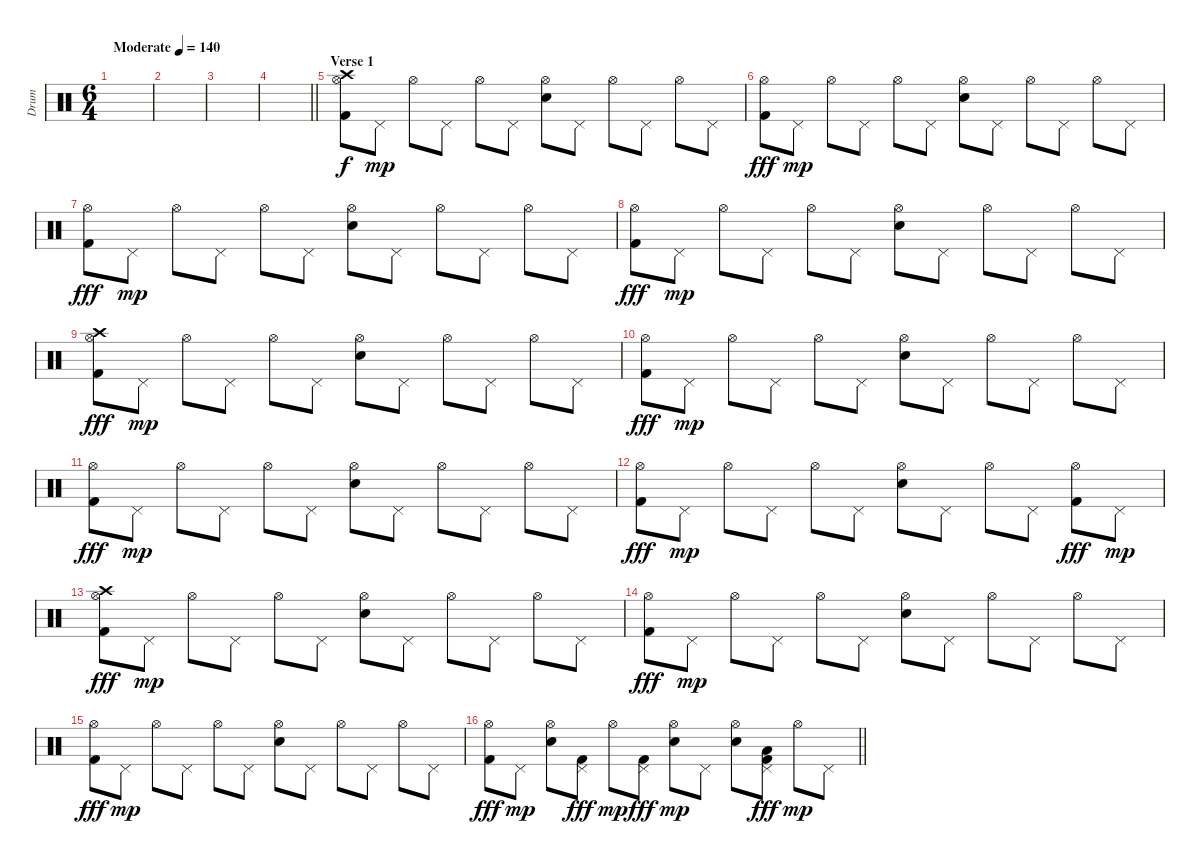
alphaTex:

\track ("Drum" "Drum") {instrument percussion}
\staff {score}
\articulation defaults
\ts (6 4)
\tempo (140 "Moderate")
\clef neutral
\ks c
|
|
|
\barLineRight lightlight
|
\section ("" "Verse 1")
("Hi-Hat (open)" "Kick (hit) 2" "Crash high (hit)").8 "Pedal Hi-Hat (hit)".8{dy mp} "Hi-Hat (open)".8 "Pedal Hi-Hat (hit)".8 "Hi-Hat (open)".8 "Pedal Hi-Hat (hit)".8 ("Hi-Hat (open)" "Electric Snare (hit)").8 "Pedal Hi-Hat (hit)".8 "Hi-Hat (open)".8 "Pedal Hi-Hat (hit)".8 "Hi-Hat (open)".8 "Pedal Hi-Hat (hit)".8 |
("Hi-Hat (open)" "Kick (hit) 2").8{dy fff} "Pedal Hi-Hat (hit)".8{dy mp} "Hi-Hat (open)".8 "Pedal Hi-Hat (hit)".8 "Hi-Hat (open)".8 "Pedal Hi-Hat (hit)".8 ("Hi-Hat (open)" "Electric Snare (hit)").8 "Pedal Hi-Hat (hit)".8 "Hi-Hat (open)".8 "Pedal Hi-Hat (hit)".8 "Hi-Hat (open)".8 "Pedal Hi-Hat (hit)".8 |
("Hi-Hat (open)" "Kick (hit) 2").8{dy fff} "Pedal Hi-Hat (hit)".8{dy mp} "Hi-Hat (open)".8 "Pedal Hi-Hat (hit)".8 "Hi-Hat (open)".8 "Pedal Hi-Hat (hit)".8 ("Hi-Hat (open)" "Electric Snare (hit)").8 "Pedal Hi-Hat (hit)".8 "Hi-Hat (open)".8 "Pedal Hi-Hat (hit)".8 "Hi-Hat (open)".8 "Pedal Hi-Hat (hit)".8 |
("Hi-Hat (open)" "Kick (hit) 2").8{dy fff} "Pedal Hi-Hat (hit)".8{dy mp} "Hi-Hat (open)".8 "Pedal Hi-Hat (hit)".8 "Hi-Hat (open)".8 "Pedal Hi-Hat (hit)".8 ("Hi-Hat (open)" "Electric Snare (hit)").8 "Pedal Hi-Hat (hit)".8 "Hi-Hat (open)".8 "Pedal Hi-Hat (hit)".8 "Hi-Hat (open)".8 "Pedal Hi-Hat (hit)".8 |
("Hi-Hat (open)" "Kick (hit) 2" "Crash high (hit)").8{dy fff} "Pedal Hi-Hat (hit)".8{dy mp} "Hi-Hat (open)".8 "Pedal Hi-Hat (hit)".8 "Hi-Hat (open)".8 "Pedal Hi-Hat (hit)".8 ("Hi-Hat (open)" "Electric Snare (hit)").8 "Pedal Hi-Hat (hit)".8 "Hi-Hat (open)".8 "Pedal Hi-Hat (hit)".8 "Hi-Hat (open)".8 "Pedal Hi-Hat (hit)".8 |
("Hi-Hat (open)" "Kick (hit) 2").8{dy fff} "Pedal Hi-Hat (hit)".8{dy mp} "Hi-Hat (open)".8 "Pedal Hi-Hat (hit)".8 "Hi-Hat (open)".8 "Pedal Hi-Hat (hit)".8 ("Hi-Hat (open)" "Electric Snare (hit)").8 "Pedal Hi-Hat (hit)".8 "Hi-Hat (open)".8 "Pedal Hi-Hat (hit)".8 "Hi-Hat (open)".8 "Pedal Hi-Hat (hit)".8 |
("Hi-Hat (open)" "Kick (hit) 2").8{dy fff} "Pedal Hi-Hat (hit)".8{dy mp} "Hi-Hat (open)".8 "Pedal Hi-Hat (hit)".8 "Hi-Hat (open)".8 "Pedal Hi-Hat (hit)".8 ("Hi-Hat (open)" "Electric Snare (hit)").8 "Pedal Hi-Hat (hit)".8 "Hi-Hat (open)".8 "Pedal Hi-Hat (hit)".8 "Hi-Hat (open)".8 "Pedal Hi-Hat (hit)".8 |
("Hi-Hat (open)" "Kick (hit) 2").8{dy fff} "Pedal Hi-Hat (hit)".8{dy mp} "Hi-Hat (open)".8 "Pedal Hi-Hat (hit)".8 "Hi-Hat (open)".8 "Pedal Hi-Hat (hit)".8 ("Hi-Hat (open)" "Electric Snare (hit)").8 "Pedal Hi-Hat (hit)".8 "Hi-Hat (open)".8 "Pedal Hi-Hat (hit)".8 ("Hi-Hat (open)" "Kick (hit) 2").8{dy fff} "Pedal Hi-Hat (hit)".8{dy mp} |
("Hi-Hat (open)" "Kick (hit) 2" "Crash high (hit)").8{dy fff} "Pedal Hi-Hat (hit)".8{dy mp} "Hi-Hat (open)".8 "Pedal Hi-Hat (hit)".8 "Hi-Hat (open)".8 "Pedal Hi-Hat (hit)".8 ("Hi-Hat (open)" "Electric Snare (hit)").8 "Pedal Hi-Hat (hit)".8 "Hi-Hat (open)".8 "Pedal Hi-Hat (hit)".8 "Hi-Hat (open)".8 "Pedal Hi-Hat (hit)".8 |
("Hi-Hat (open)" "Kick (hit) 2").8{dy fff} "Pedal Hi-Hat (hit)".8{dy mp} "Hi-Hat (open)".8 "Pedal Hi-Hat (hit)".8 "Hi-Hat (open)".8 "Pedal Hi-Hat (hit)".8 ("Hi-Hat (open)" "Electric Snare (hit)").8 "Pedal Hi-Hat (hit)".8 "Hi-Hat (open)".8 "Pedal Hi-Hat (hit)".8 "Hi-Hat (open)".8 "Pedal Hi-Hat (hit)".8 |
("Hi-Hat (open)" "Kick (hit) 2").8{dy fff} "Pedal Hi-Hat (hit)".8{dy mp} "Hi-Hat (open)".8 "Pedal Hi-Hat (hit)".8 "Hi-Hat (open)".8 "Pedal Hi-Hat (hit)".8 ("Hi-Hat (open)" "Electric Snare (hit)").8 "Pedal Hi-Hat (hit)".8 "Hi-Hat (open)".8 "Pedal Hi-Hat (hit)".8 "Hi-Hat (open)".8 "Pedal Hi-Hat (hit)".8 |
\barLineRight lightlight
("Hi-Hat (open)" "Kick (hit) 2").8{dy fff} "Pedal Hi-Hat (hit)".8{dy mp} ("Hi-Hat (open)" "Electric Snare (hit)").8 ("Pedal Hi-Hat (hit)" "Kick (hit) 2").8{dy fff} "Hi-Hat (open)".8{dy mp} ("Pedal Hi-Hat (hit)" "Kick (hit) 2").8{dy fff} ("Hi-Hat (open)" "Electric Snare (hit)").8{dy mp} "Pedal Hi-Hat (hit)".8 ("Hi-Hat (open)" "Electric Snare (hit)").8 ("Pedal Hi-Hat (hit)" "Kick (hit) 2" "Low Tom (hit)").8{dy fff} "Hi-Hat (open)".8{dy mp} "Pedal Hi-Hat (hit)".8
